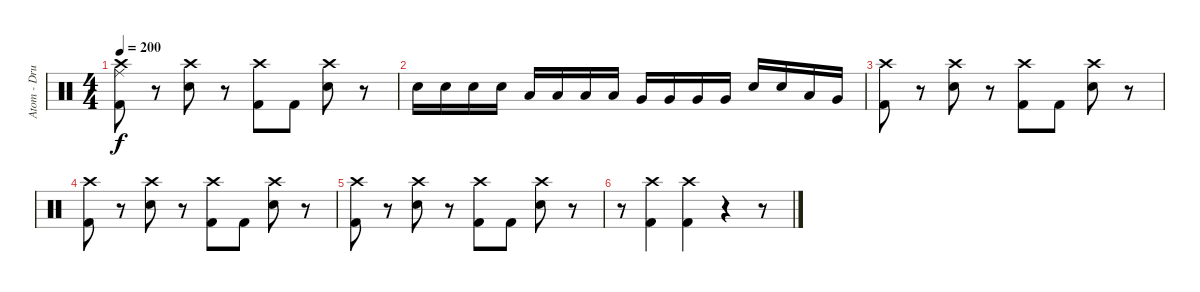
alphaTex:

\track ("Atom - Drums" "Atom - Dru") {instrument percussion}
\staff {score}
\articulation defaults
\ts (4 4)
\tempo 200
\clef neutral
\ks c
("Crash high (hit)" "Ride (middle)" "Kick (hit) 2").8{dy f} r.8 ("Crash high (hit)" "Electric Snare (hit)").8 r.8 ("Crash high (hit)" "Kick (hit) 2").8 "Kick (hit) 2".8 ("Crash high (hit)" "Electric Snare (hit)").8 r.8 |
"Electric Snare (hit)".16 "Electric Snare (hit)".16 "Electric Snare (hit)".16 "Electric Snare (hit)".16 "Low Tom (hit)".16 "Low Tom (hit)".16 "Low Tom (hit)".16 "Low Tom (hit)".16 "Very Low Tom (hit)".16 "Very Low Tom (hit)".16 "Very Low Tom (hit)".16 "Very Low Tom (hit)".16 "Electric Snare (hit)".16 "Electric Snare (hit)".16 "Low Tom (hit)".16 "Very Low Tom (hit)".16 |
("Crash high (hit)" "Kick (hit) 2").8 r.8 ("Crash high (hit)" "Electric Snare (hit)").8 r.8 ("Crash high (hit)" "Kick (hit) 2").8 "Kick (hit) 2".8 ("Crash high (hit)" "Electric Snare (hit)").8 r.8 |
("Crash high (hit)" "Kick (hit) 2").8 r.8 ("Crash high (hit)" "Electric Snare (hit)").8 r.8 ("Crash high (hit)" "Kick (hit) 2").8 "Kick (hit) 2".8 ("Crash high (hit)" "Electric Snare (hit)").8 r.8 |
("Crash high (hit)" "Kick (hit) 2").8 r.8 ("Crash high (hit)" "Electric Snare (hit)").8 r.8 ("Crash high (hit)" "Kick (hit) 2").8 "Kick (hit) 2".8 ("Crash high (hit)" "Electric Snare (hit)").8 r.8 |
r.8 ("Crash high (hit)" "Kick (hit) 2").4 ("Crash high (hit)" "Kick (hit) 2").4 r.4 r.8
